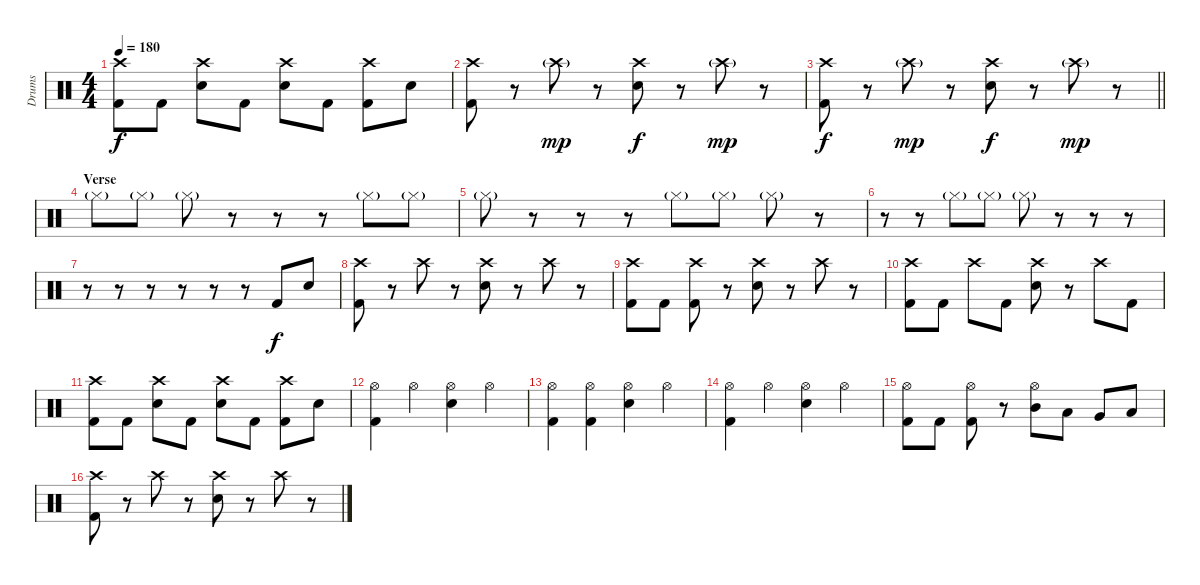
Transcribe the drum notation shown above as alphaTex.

\track ("Drums" "Drums") {instrument percussion}
\staff {score}
\articulation defaults
\ts (4 4)
\tempo 180
\clef neutral
\ks c
("Crash high (hit)" "Kick (hit) 2").8{dy f} "Kick (hit) 2".8 ("Electric Snare (hit)" "Crash high (hit)").8 "Kick (hit) 2".8 ("Electric Snare (hit)" "Crash high (hit)").8 "Kick (hit) 2".8 ("Crash high (hit)" "Kick (hit) 2").8 "Electric Snare (hit)".8 |
("Crash high (hit)" "Kick (hit) 2").8 r.8 "Crash high (hit)"{g}.8{dy mp} r.8 ("Crash high (hit)" "Electric Snare (hit)").8{dy f} r.8 "Crash high (hit)"{g}.8{dy mp} r.8 |
\barLineRight lightlight
("Crash high (hit)" "Kick (hit) 2").8{dy f} r.8 "Crash high (hit)"{g}.8{dy mp} r.8 ("Crash high (hit)" "Electric Snare (hit)").8{dy f} r.8 "Crash high (hit)"{g}.8{dy mp} r.8 |
\section ("" "Verse")
"Hi-Hat (closed)"{g}.8 "Hi-Hat (closed)"{g}.8 "Hi-Hat (closed)"{g}.8 r.8 r.8 r.8 "Hi-Hat (closed)"{g}.8 "Hi-Hat (closed)"{g}.8 |
"Hi-Hat (closed)"{g}.8 r.8 r.8 r.8 "Hi-Hat (closed)"{g}.8 "Hi-Hat (closed)"{g}.8 "Hi-Hat (closed)"{g}.8 r.8 |
r.8 r.8 "Hi-Hat (closed)"{g}.8 "Hi-Hat (closed)"{g}.8 "Hi-Hat (closed)"{g}.8 r.8 r.8 r.8 |
r.8 r.8 r.8 r.8 r.8 r.8 "Kick (hit) 2".8{dy f} "Electric Snare (hit)".8 |
("Crash high (hit)" "Kick (hit) 2").8 r.8 "Crash high (hit)".8 r.8 ("Crash high (hit)" "Electric Snare (hit)").8 r.8 "Crash high (hit)".8 r.8 |
("Crash high (hit)" "Kick (hit) 2").8 "Kick (hit) 2".8 ("Crash high (hit)" "Kick (hit) 2").8 r.8 ("Crash high (hit)" "Electric Snare (hit)").8 r.8 "Crash high (hit)".8 r.8 |
("Crash high (hit)" "Kick (hit) 2").8 "Kick (hit) 2".8 "Crash high (hit)".8 "Kick (hit) 2".8 ("Crash high (hit)" "Electric Snare (hit)").8 r.8 "Crash high (hit)".8 "Kick (hit) 2".8 |
("Crash high (hit)" "Kick (hit) 2").8 "Kick (hit) 2".8 ("Electric Snare (hit)" "Crash high (hit)").8 "Kick (hit) 2".8 ("Electric Snare (hit)" "Crash high (hit)").8 "Kick (hit) 2".8 ("Crash high (hit)" "Kick (hit) 2").8 "Electric Snare (hit)".8 |
("Kick (hit) 2" "Hi-Hat (open)").4 "Hi-Hat (open)".4 ("Hi-Hat (open)" "Electric Snare (hit)").4 "Hi-Hat (open)".4 |
("Hi-Hat (open)" "Kick (hit) 2").4 ("Hi-Hat (open)" "Kick (hit) 2").4 ("Hi-Hat (open)" "Electric Snare (hit)").4 "Hi-Hat (open)".4 |
("Kick (hit) 2" "Hi-Hat (open)").4 "Hi-Hat (open)".4 ("Hi-Hat (open)" "Electric Snare (hit)").4 "Hi-Hat (open)".4 |
("Kick (hit) 2" "Hi-Hat (open)").8 "Kick (hit) 2".8 ("Kick (hit) 2" "Hi-Hat (open)").8 r.8 ("Hi-Hat (open)" "Mid Tom (hit)").8 "Low Tom (hit)".8 "Very Low Tom (hit)".8 "Low Floor Tom (hit)".8 |
("Crash high (hit)" "Kick (hit) 2").8 r.8 "Crash high (hit)".8 r.8 ("Crash high (hit)" "Electric Snare (hit)").8 r.8 "Crash high (hit)".8 r.8
